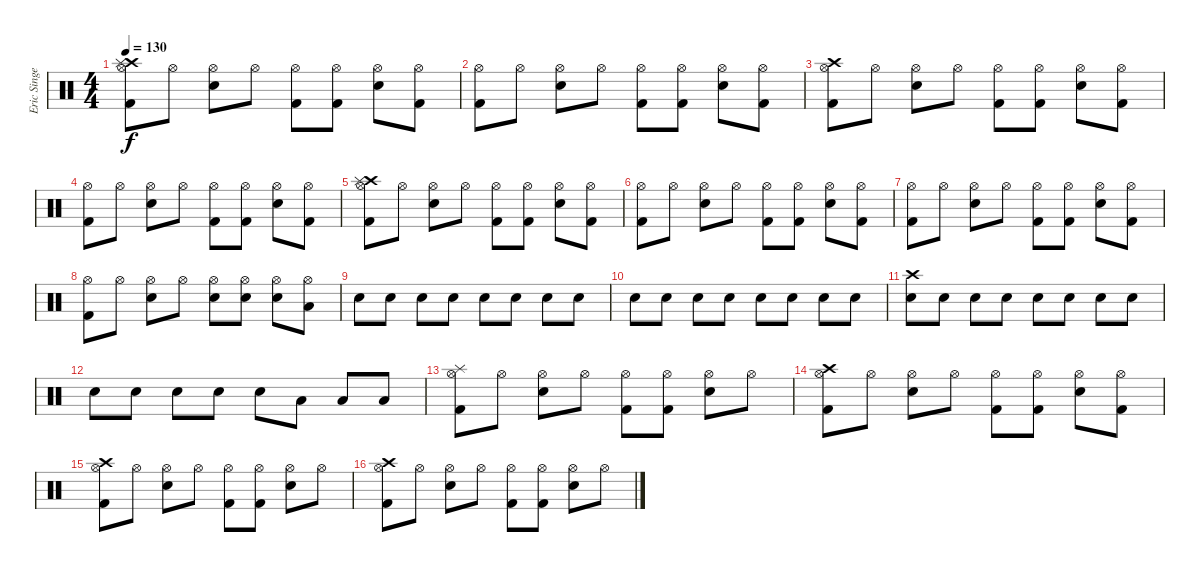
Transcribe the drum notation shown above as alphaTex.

\track ("Eric Singer" "Eric Singe") {instrument percussion}
\staff {score}
\articulation defaults
\ts (4 4)
\tempo 130
\clef neutral
\ks c
("Kick (hit) 2" "Hi-Hat (open)" "Crash high (hit)" "Splash (hit)").8{dy f} "Hi-Hat (open)".8 ("Electric Snare (hit)" "Hi-Hat (open)").8 "Hi-Hat (open)".8 ("Kick (hit) 2" "Hi-Hat (open)").8 ("Kick (hit) 2" "Hi-Hat (open)").8 ("Electric Snare (hit)" "Hi-Hat (open)").8 ("Kick (hit) 2" "Hi-Hat (open)").8 |
("Kick (hit) 2" "Hi-Hat (open)").8 "Hi-Hat (open)".8 ("Electric Snare (hit)" "Hi-Hat (open)").8 "Hi-Hat (open)".8 ("Kick (hit) 2" "Hi-Hat (open)").8 ("Kick (hit) 2" "Hi-Hat (open)").8 ("Electric Snare (hit)" "Hi-Hat (open)").8 ("Kick (hit) 2" "Hi-Hat (open)").8 |
("Kick (hit) 2" "Hi-Hat (open)" "Crash high (hit)").8 "Hi-Hat (open)".8 ("Electric Snare (hit)" "Hi-Hat (open)").8 "Hi-Hat (open)".8 ("Kick (hit) 2" "Hi-Hat (open)").8 ("Kick (hit) 2" "Hi-Hat (open)").8 ("Electric Snare (hit)" "Hi-Hat (open)").8 ("Kick (hit) 2" "Hi-Hat (open)").8 |
("Kick (hit) 2" "Hi-Hat (open)").8 "Hi-Hat (open)".8 ("Electric Snare (hit)" "Hi-Hat (open)").8 "Hi-Hat (open)".8 ("Kick (hit) 2" "Hi-Hat (open)").8 ("Kick (hit) 2" "Hi-Hat (open)").8 ("Electric Snare (hit)" "Hi-Hat (open)").8 ("Kick (hit) 2" "Hi-Hat (open)").8 |
("Kick (hit) 2" "Hi-Hat (open)" "Crash high (hit)" "Splash (hit)").8 "Hi-Hat (open)".8 ("Electric Snare (hit)" "Hi-Hat (open)").8 "Hi-Hat (open)".8 ("Kick (hit) 2" "Hi-Hat (open)").8 ("Kick (hit) 2" "Hi-Hat (open)").8 ("Electric Snare (hit)" "Hi-Hat (open)").8 ("Kick (hit) 2" "Hi-Hat (open)").8 |
("Kick (hit) 2" "Hi-Hat (open)").8 "Hi-Hat (open)".8 ("Electric Snare (hit)" "Hi-Hat (open)").8 "Hi-Hat (open)".8 ("Kick (hit) 2" "Hi-Hat (open)").8 ("Kick (hit) 2" "Hi-Hat (open)").8 ("Electric Snare (hit)" "Hi-Hat (open)").8 ("Kick (hit) 2" "Hi-Hat (open)").8 |
("Kick (hit) 2" "Hi-Hat (open)").8 "Hi-Hat (open)".8 ("Electric Snare (hit)" "Hi-Hat (open)").8 "Hi-Hat (open)".8 ("Kick (hit) 2" "Hi-Hat (open)").8 ("Kick (hit) 2" "Hi-Hat (open)").8 ("Electric Snare (hit)" "Hi-Hat (open)").8 ("Kick (hit) 2" "Hi-Hat (open)").8 |
("Kick (hit) 2" "Hi-Hat (open)").8 "Hi-Hat (open)".8 ("Electric Snare (hit)" "Hi-Hat (open)").8 "Hi-Hat (open)".8 ("Electric Snare (hit)" "Hi-Hat (open)").8 ("Electric Snare (hit)" "Hi-Hat (open)").8 ("Electric Snare (hit)" "Hi-Hat (open)").8 ("Low Floor Tom (hit)" "Hi-Hat (open)").8 |
"Electric Snare (hit)".8{volume 6} "Electric Snare (hit)".8{volume 8} "Electric Snare (hit)".8{volume 11} "Electric Snare (hit)".8{volume 14} "Electric Snare (hit)".8{volume 16} "Electric Snare (hit)".8 "Electric Snare (hit)".8 "Electric Snare (hit)".8 |
"Electric Snare (hit)".8 "Electric Snare (hit)".8 "Electric Snare (hit)".8 "Electric Snare (hit)".8 "Electric Snare (hit)".8 "Electric Snare (hit)".8 "Electric Snare (hit)".8 "Electric Snare (hit)".8 |
("Electric Snare (hit)" "Crash high (hit)").8{volume 6} "Electric Snare (hit)".8{volume 8} "Electric Snare (hit)".8{volume 11} "Electric Snare (hit)".8{volume 14} "Electric Snare (hit)".8{volume 16} "Electric Snare (hit)".8 "Electric Snare (hit)".8 "Electric Snare (hit)".8 |
"Electric Snare (hit)".8 "Electric Snare (hit)".8 "Electric Snare (hit)".8 "Electric Snare (hit)".8 "Electric Snare (hit)".8 "Low Floor Tom (hit)".8 "Low Floor Tom (hit)".8 "Low Floor Tom (hit)".8 |
("Splash (hit)" "Kick (hit) 2" "Hi-Hat (open)").8 "Hi-Hat (open)".8 ("Electric Snare (hit)" "Hi-Hat (open)").8 "Hi-Hat (open)".8 ("Kick (hit) 2" "Hi-Hat (open)").8 ("Kick (hit) 2" "Hi-Hat (open)").8 ("Electric Snare (hit)" "Hi-Hat (open)").8 "Hi-Hat (open)".8 |
("Crash high (hit)" "Kick (hit) 2" "Hi-Hat (open)").8 "Hi-Hat (open)".8 ("Electric Snare (hit)" "Hi-Hat (open)").8 "Hi-Hat (open)".8 ("Kick (hit) 2" "Hi-Hat (open)").8 ("Kick (hit) 2" "Hi-Hat (open)").8 ("Electric Snare (hit)" "Hi-Hat (open)").8 ("Kick (hit) 2" "Hi-Hat (open)").8 |
("Crash high (hit)" "Kick (hit) 2" "Hi-Hat (open)").8 "Hi-Hat (open)".8 ("Electric Snare (hit)" "Hi-Hat (open)").8 "Hi-Hat (open)".8 ("Kick (hit) 2" "Hi-Hat (open)").8 ("Kick (hit) 2" "Hi-Hat (open)").8 ("Electric Snare (hit)" "Hi-Hat (open)").8 "Hi-Hat (open)".8 |
("Crash high (hit)" "Kick (hit) 2" "Hi-Hat (open)").8 "Hi-Hat (open)".8 ("Electric Snare (hit)" "Hi-Hat (open)").8 "Hi-Hat (open)".8 ("Kick (hit) 2" "Hi-Hat (open)").8 ("Kick (hit) 2" "Hi-Hat (open)").8 ("Electric Snare (hit)" "Hi-Hat (open)").8 "Hi-Hat (open)".8
